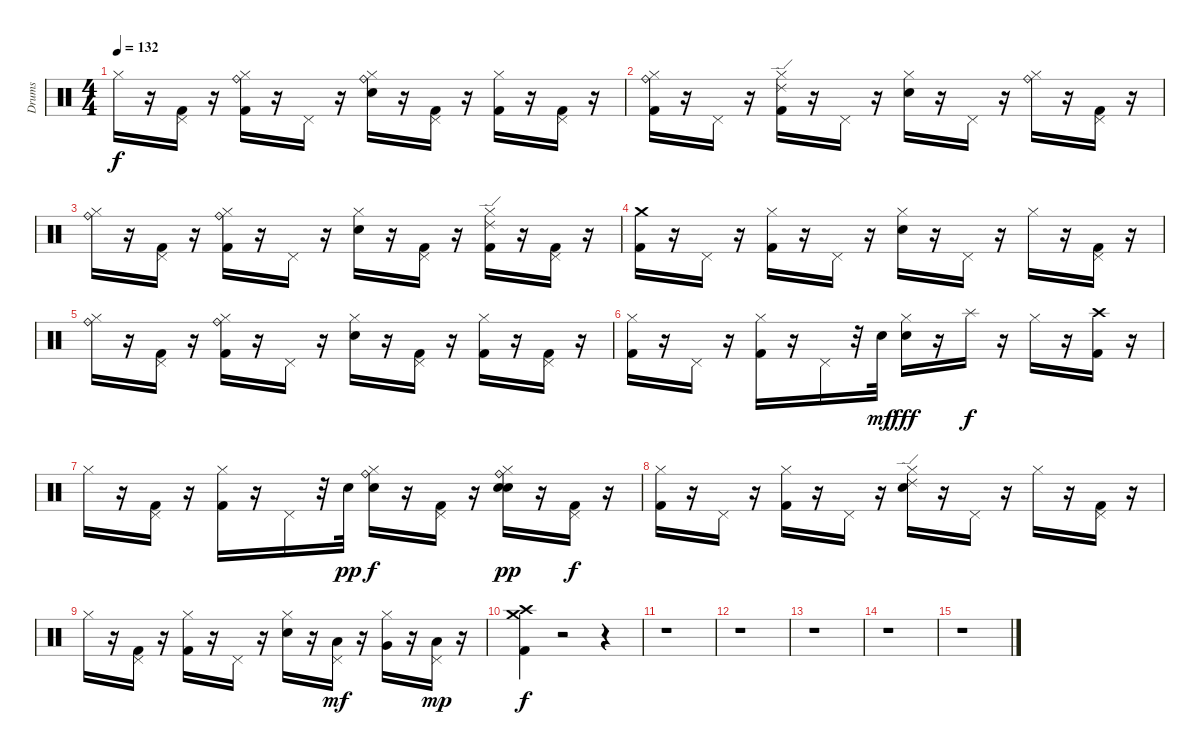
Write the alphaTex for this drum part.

\track ("Drums" "Drums") {instrument percussion}
\staff {score}
\articulation defaults
\ts (4 4)
\tempo 132
\clef neutral
\ks c "Hi-Hat (closed)".16{dy f}
r.16 ("Pedal Hi-Hat (hit)" "Kick (hit) 2").16 r.16 ("Ride (bell)" "Hi-Hat (closed)" "Kick (hit) 2").16 r.16 "Pedal Hi-Hat (hit)".16 r.16 ("Ride (bell)" "Hi-Hat (closed)" "Electric Snare (hit)").16 r.16 ("Pedal Hi-Hat (hit)" "Kick (hit) 2").16 r.16 ("Hi-Hat (closed)" "Kick (hit) 2").16 r.16 ("Pedal Hi-Hat (hit)" "Kick (hit) 2").16 r.16 |
("Ride (bell)" "Hi-Hat (closed)" "Kick (hit) 2").16 r.16 "Pedal Hi-Hat (hit)".16 r.16 ("Ride (edge) 2" "Hi-Hat (closed)" "Kick (hit) 2").16 r.16 "Pedal Hi-Hat (hit)".16 r.16 ("Hi-Hat (closed)" "Electric Snare (hit)").16 r.16 "Pedal Hi-Hat (hit)".16 r.16 ("Ride (bell)" "Hi-Hat (closed)").16 r.16 ("Pedal Hi-Hat (hit)" "Kick (hit) 2").16 r.16 |
("Ride (bell)" "Hi-Hat (closed)").16 r.16 ("Pedal Hi-Hat (hit)" "Kick (hit) 2").16 r.16 ("Ride (bell)" "Hi-Hat (closed)" "Kick (hit) 2").16 r.16 "Pedal Hi-Hat (hit)".16 r.16 ("Hi-Hat (closed)" "Electric Snare (hit)").16 r.16 ("Pedal Hi-Hat (hit)" "Kick (hit) 2").16 r.16 ("Ride (edge) 2" "Hi-Hat (closed)" "Kick (hit) 2").16 r.16 ("Pedal Hi-Hat (hit)" "Kick (hit) 2").16 r.16 |
("Crash medium (hit)" "Kick (hit) 2").16 r.16 "Pedal Hi-Hat (hit)".16 r.16 ("Hi-Hat (closed)" "Kick (hit) 2").16 r.16 "Pedal Hi-Hat (hit)".16 r.16 ("Hi-Hat (closed)" "Electric Snare (hit)").16 r.16 "Pedal Hi-Hat (hit)".16 r.16 "Hi-Hat (closed)".16 r.16 ("Pedal Hi-Hat (hit)" "Kick (hit) 2").16 r.16 |
("Ride (bell)" "Hi-Hat (closed)").16 r.16 ("Pedal Hi-Hat (hit)" "Kick (hit) 2").16 r.16 ("Ride (bell)" "Hi-Hat (closed)" "Kick (hit) 2").16 r.16 "Pedal Hi-Hat (hit)".16 r.16 ("Hi-Hat (closed)" "Electric Snare (hit)").16 r.16 ("Pedal Hi-Hat (hit)" "Kick (hit) 2").16 r.16 ("Hi-Hat (closed)" "Kick (hit) 2").16 r.16 ("Pedal Hi-Hat (hit)" "Kick (hit) 2").16 r.16 |
("Hi-Hat (closed)" "Kick (hit) 2").16 r.16 "Pedal Hi-Hat (hit)".16 r.16 ("Hi-Hat (closed)" "Kick (hit) 2").16 r.16 "Pedal Hi-Hat (hit)".16 r.32 "Electric Snare (hit)".32{dy mf} ("Hi-Hat (closed)" "Electric Snare (hit)").16{dy fff} r.16 "Splash (hit)".16{dy f} r.16 "Hi-Hat (closed)".16 r.16 ("Crash high (hit)" "Kick (hit) 2").16 r.16 |
"Hi-Hat (closed)".16 r.16 ("Pedal Hi-Hat (hit)" "Kick (hit) 2").16 r.16 ("Hi-Hat (closed)" "Kick (hit) 2").16 r.16 "Pedal Hi-Hat (hit)".16 r.32 "Snare (hit) 2".32{dy pp} ("Ride (bell)" "Hi-Hat (closed)" "Electric Snare (hit)").16{dy f} r.16 ("Pedal Hi-Hat (hit)" "Kick (hit) 2").16 r.16 ("Snare (hit) 2" "Ride (bell)" "Hi-Hat (closed)" "Electric Snare (hit)").16{dy pp} r.16 ("Pedal Hi-Hat (hit)" "Kick (hit) 2").16{dy f} r.16 |
("Hi-Hat (closed)" "Kick (hit) 2").16 r.16 "Pedal Hi-Hat (hit)".16 r.16 ("Hi-Hat (closed)" "Kick (hit) 2").16 r.16 "Pedal Hi-Hat (hit)".16 r.16 ("Ride (edge) 2" "Hi-Hat (closed)" "Electric Snare (hit)").16 r.16 "Pedal Hi-Hat (hit)".16 r.16 "Hi-Hat (closed)".16 r.16 ("Pedal Hi-Hat (hit)" "Kick (hit) 2").16 r.16 |
"Hi-Hat (closed)".16 r.16 ("Pedal Hi-Hat (hit)" "Kick (hit) 2").16 r.16 ("Hi-Hat (closed)" "Kick (hit) 2").16 r.16 "Pedal Hi-Hat (hit)".16 r.16 ("Hi-Hat (closed)" "Electric Snare (hit)").16 r.16 ("Pedal Hi-Hat (hit)" "Low Tom (hit)").16{dy mf} r.16 ("Hi-Hat (closed)" "Very Low Tom (hit)").16 r.16 ("Pedal Hi-Hat (hit)" "Low Floor Tom (hit)").16{dy mp} r.16 |
("Kick (hit) 2" "Crash high (hit)" "Crash medium (hit)").4{dy f} r.2 r.4 |
r.1 |
r.1 |
r.1 |
r.1 |
r.1
